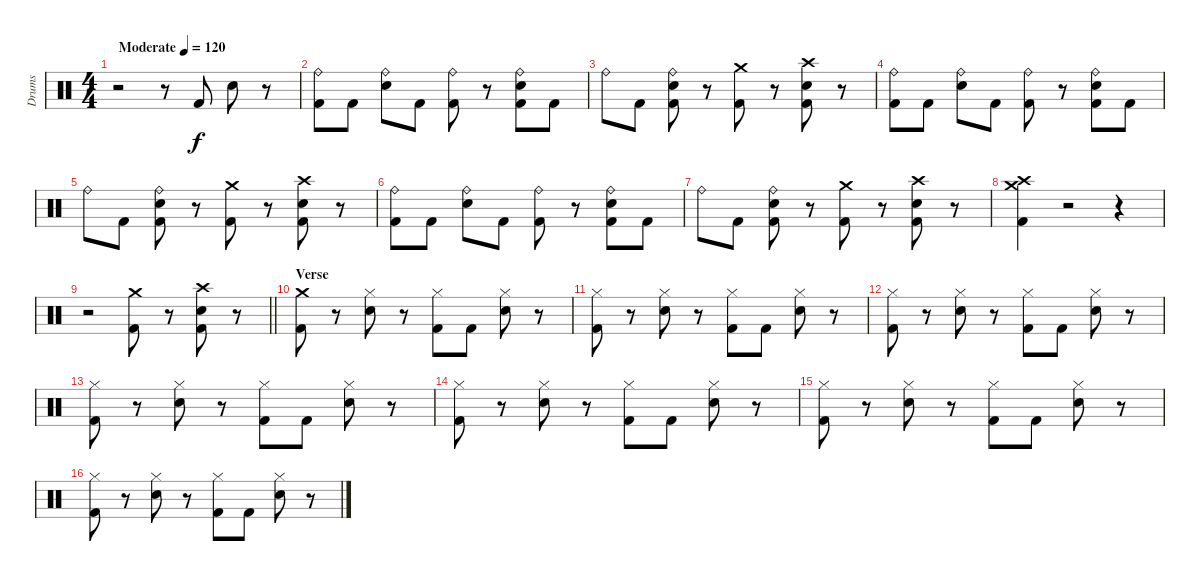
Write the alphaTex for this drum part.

\track ("Drums" "Drums") {instrument percussion}
\staff {score}
\articulation defaults
\ts (4 4)
\tempo (120 "Moderate")
\clef neutral
\ks c
r.2{dy f} r.8 "Kick (hit) 2".8 "Electric Snare (hit)".8 r.8 |
("Ride (bell)" "Kick (hit) 2").8 "Kick (hit) 2".8 ("Ride (bell)" "Electric Snare (hit)").8 "Kick (hit) 2".8 ("Ride (bell)" "Kick (hit) 2").8 r.8 ("Ride (bell)" "Electric Snare (hit)" "Kick (hit) 2").8 "Kick (hit) 2".8 |
"Ride (bell)".8 "Kick (hit) 2".8 ("Ride (bell)" "Electric Snare (hit)" "Kick (hit) 2").8 r.8 ("Crash medium (hit)" "Kick (hit) 2").8 r.8 ("Crash high (hit)" "Electric Snare (hit)" "Kick (hit) 2").8 r.8 |
("Ride (bell)" "Kick (hit) 2").8 "Kick (hit) 2".8 ("Ride (bell)" "Electric Snare (hit)").8 "Kick (hit) 2".8 ("Ride (bell)" "Kick (hit) 2").8 r.8 ("Ride (bell)" "Electric Snare (hit)" "Kick (hit) 2").8 "Kick (hit) 2".8 |
"Ride (bell)".8 "Kick (hit) 2".8 ("Ride (bell)" "Electric Snare (hit)" "Kick (hit) 2").8 r.8 ("Crash medium (hit)" "Kick (hit) 2").8 r.8 ("Crash high (hit)" "Electric Snare (hit)" "Kick (hit) 2").8 r.8 |
("Ride (bell)" "Kick (hit) 2").8 "Kick (hit) 2".8 ("Ride (bell)" "Electric Snare (hit)").8 "Kick (hit) 2".8 ("Ride (bell)" "Kick (hit) 2").8 r.8 ("Ride (bell)" "Electric Snare (hit)" "Kick (hit) 2").8 "Kick (hit) 2".8 |
"Ride (bell)".8 "Kick (hit) 2".8 ("Ride (bell)" "Electric Snare (hit)" "Kick (hit) 2").8 r.8 ("Crash medium (hit)" "Kick (hit) 2").8 r.8 ("Crash high (hit)" "Electric Snare (hit)" "Kick (hit) 2").8 r.8 |
("Crash high (hit)" "Crash medium (hit)" "Kick (hit) 2").4 r.2 r.4 |
\barLineRight lightlight
r.2 ("Crash medium (hit)" "Kick (hit) 2").8 r.8 ("Crash high (hit)" "Electric Snare (hit)" "Kick (hit) 2").8 r.8 |
\section ("" "Verse")
("Crash medium (hit)" "Kick (hit) 2").8 r.8 ("Hi-Hat (closed)" "Electric Snare (hit)").8 r.8 ("Hi-Hat (closed)" "Kick (hit) 2").8 "Kick (hit) 2".8 ("Hi-Hat (closed)" "Electric Snare (hit)").8 r.8 |
("Hi-Hat (closed)" "Kick (hit) 2").8 r.8 ("Hi-Hat (closed)" "Electric Snare (hit)").8 r.8 ("Hi-Hat (closed)" "Kick (hit) 2").8 "Kick (hit) 2".8 ("Hi-Hat (closed)" "Electric Snare (hit)").8 r.8 |
("Hi-Hat (closed)" "Kick (hit) 2").8 r.8 ("Hi-Hat (closed)" "Electric Snare (hit)").8 r.8 ("Hi-Hat (closed)" "Kick (hit) 2").8 "Kick (hit) 2".8 ("Hi-Hat (closed)" "Electric Snare (hit)").8 r.8 |
("Hi-Hat (closed)" "Kick (hit) 2").8 r.8 ("Hi-Hat (closed)" "Electric Snare (hit)").8 r.8 ("Hi-Hat (closed)" "Kick (hit) 2").8 "Kick (hit) 2".8 ("Hi-Hat (closed)" "Electric Snare (hit)").8 r.8 |
("Hi-Hat (closed)" "Kick (hit) 2").8 r.8 ("Hi-Hat (closed)" "Electric Snare (hit)").8 r.8 ("Hi-Hat (closed)" "Kick (hit) 2").8 "Kick (hit) 2".8 ("Hi-Hat (closed)" "Electric Snare (hit)").8 r.8 |
("Hi-Hat (closed)" "Kick (hit) 2").8 r.8 ("Hi-Hat (closed)" "Electric Snare (hit)").8 r.8 ("Hi-Hat (closed)" "Kick (hit) 2").8 "Kick (hit) 2".8 ("Hi-Hat (closed)" "Electric Snare (hit)").8 r.8 |
("Hi-Hat (closed)" "Kick (hit) 2").8 r.8 ("Hi-Hat (closed)" "Electric Snare (hit)").8 r.8 ("Hi-Hat (closed)" "Kick (hit) 2").8 "Kick (hit) 2".8 ("Hi-Hat (closed)" "Electric Snare (hit)").8 r.8
